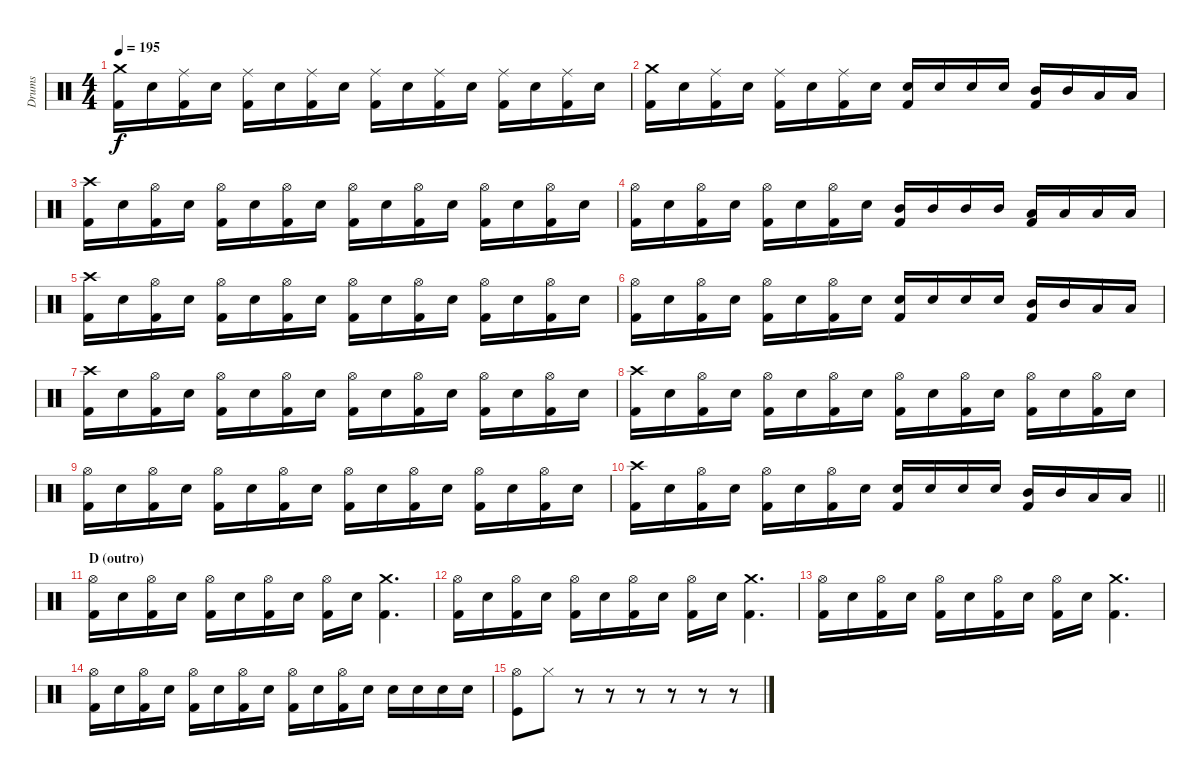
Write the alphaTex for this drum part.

\track ("Drums" "Drums") {instrument percussion}
\staff {score}
\articulation defaults
\ts (4 4)
\tempo 195
\clef neutral
\ks c
("Crash medium (hit)" "Kick (hit) 2").16{dy f} "Snare (hit) 2".16 ("Ride (middle)" "Kick (hit) 2").16 "Snare (hit) 2".16 ("Ride (middle)" "Kick (hit) 2").16 "Snare (hit) 2".16 ("Ride (middle)" "Kick (hit) 2").16 "Snare (hit) 2".16 ("Ride (middle)" "Kick (hit) 2").16 "Snare (hit) 2".16 ("Ride (middle)" "Kick (hit) 2").16 "Snare (hit) 2".16 ("Ride (middle)" "Kick (hit) 2").16 "Snare (hit) 2".16 ("Ride (middle)" "Kick (hit) 2").16 "Snare (hit) 2".16 |
("Crash medium (hit)" "Kick (hit) 2").16 "Snare (hit) 2".16 ("Ride (middle)" "Kick (hit) 2").16 "Snare (hit) 2".16 ("Ride (middle)" "Kick (hit) 2").16 "Snare (hit) 2".16 ("Ride (middle)" "Kick (hit) 2").16 "Snare (hit) 2".16 ("Snare (hit) 2" "Kick (hit) 2").16 "Snare (hit) 2".16 "Snare (hit) 2".16 "Snare (hit) 2".16 ("Mid Tom (hit)" "Kick (hit) 2").16 "Mid Tom (hit)".16 "Low Tom (hit)".16 "Low Tom (hit)".16 |
("Crash high (hit)" "Kick (hit) 2").16 "Snare (hit) 2".16 ("Hi-Hat (open)" "Kick (hit) 2").16 "Snare (hit) 2".16 ("Hi-Hat (open)" "Kick (hit) 2").16 "Snare (hit) 2".16 ("Hi-Hat (open)" "Kick (hit) 2").16 "Snare (hit) 2".16 ("Hi-Hat (open)" "Kick (hit) 2").16 "Snare (hit) 2".16 ("Hi-Hat (open)" "Kick (hit) 2").16 "Snare (hit) 2".16 ("Hi-Hat (open)" "Kick (hit) 2").16 "Snare (hit) 2".16 ("Hi-Hat (open)" "Kick (hit) 2").16 "Snare (hit) 2".16 |
("Hi-Hat (open)" "Kick (hit) 2").16 "Snare (hit) 2".16 ("Hi-Hat (open)" "Kick (hit) 2").16 "Snare (hit) 2".16 ("Hi-Hat (open)" "Kick (hit) 2").16 "Snare (hit) 2".16 ("Hi-Hat (open)" "Kick (hit) 2").16 "Snare (hit) 2".16 ("Mid Tom (hit)" "Kick (hit) 2").16 "Mid Tom (hit)".16 "Mid Tom (hit)".16 "Mid Tom (hit)".16 ("Low Tom (hit)" "Kick (hit) 2").16 "Low Tom (hit)".16 "Low Tom (hit)".16 "Low Tom (hit)".16 |
("Crash high (hit)" "Kick (hit) 2").16 "Snare (hit) 2".16 ("Hi-Hat (open)" "Kick (hit) 2").16 "Snare (hit) 2".16 ("Hi-Hat (open)" "Kick (hit) 2").16 "Snare (hit) 2".16 ("Hi-Hat (open)" "Kick (hit) 2").16 "Snare (hit) 2".16 ("Hi-Hat (open)" "Kick (hit) 2").16 "Snare (hit) 2".16 ("Hi-Hat (open)" "Kick (hit) 2").16 "Snare (hit) 2".16 ("Hi-Hat (open)" "Kick (hit) 2").16 "Snare (hit) 2".16 ("Hi-Hat (open)" "Kick (hit) 2").16 "Snare (hit) 2".16 |
("Hi-Hat (open)" "Kick (hit) 2").16 "Snare (hit) 2".16 ("Hi-Hat (open)" "Kick (hit) 2").16 "Snare (hit) 2".16 ("Hi-Hat (open)" "Kick (hit) 2").16 "Snare (hit) 2".16 ("Hi-Hat (open)" "Kick (hit) 2").16 "Snare (hit) 2".16 ("Snare (hit) 2" "Kick (hit) 2").16 "Snare (hit) 2".16 "Snare (hit) 2".16 "Snare (hit) 2".16 ("Mid Tom (hit)" "Kick (hit) 2").16 "Mid Tom (hit)".16 "Low Tom (hit)".16 "Low Tom (hit)".16 |
("Crash high (hit)" "Kick (hit) 2").16 "Snare (hit) 2".16 ("Hi-Hat (open)" "Kick (hit) 2").16 "Snare (hit) 2".16 ("Hi-Hat (open)" "Kick (hit) 2").16 "Snare (hit) 2".16 ("Hi-Hat (open)" "Kick (hit) 2").16 "Snare (hit) 2".16 ("Hi-Hat (open)" "Kick (hit) 2").16 "Snare (hit) 2".16 ("Hi-Hat (open)" "Kick (hit) 2").16 "Snare (hit) 2".16 ("Hi-Hat (open)" "Kick (hit) 2").16 "Snare (hit) 2".16 ("Hi-Hat (open)" "Kick (hit) 2").16 "Snare (hit) 2".16 |
("Crash high (hit)" "Kick (hit) 2").16 "Snare (hit) 2".16 ("Hi-Hat (open)" "Kick (hit) 2").16 "Snare (hit) 2".16 ("Hi-Hat (open)" "Kick (hit) 2").16 "Snare (hit) 2".16 ("Hi-Hat (open)" "Kick (hit) 2").16 "Snare (hit) 2".16 ("Hi-Hat (open)" "Kick (hit) 2").16 "Snare (hit) 2".16 ("Hi-Hat (open)" "Kick (hit) 2").16 "Snare (hit) 2".16 ("Hi-Hat (open)" "Kick (hit) 2").16 "Snare (hit) 2".16 ("Hi-Hat (open)" "Kick (hit) 2").16 "Snare (hit) 2".16 |
("Hi-Hat (open)" "Kick (hit) 2").16 "Snare (hit) 2".16 ("Hi-Hat (open)" "Kick (hit) 2").16 "Snare (hit) 2".16 ("Hi-Hat (open)" "Kick (hit) 2").16 "Snare (hit) 2".16 ("Hi-Hat (open)" "Kick (hit) 2").16 "Snare (hit) 2".16 ("Hi-Hat (open)" "Kick (hit) 2").16 "Snare (hit) 2".16 ("Hi-Hat (open)" "Kick (hit) 2").16 "Snare (hit) 2".16 ("Hi-Hat (open)" "Kick (hit) 2").16 "Snare (hit) 2".16 ("Hi-Hat (open)" "Kick (hit) 2").16 "Snare (hit) 2".16 |
\barLineRight lightlight
("Crash high (hit)" "Kick (hit) 2").16 "Snare (hit) 2".16 ("Hi-Hat (open)" "Kick (hit) 2").16 "Snare (hit) 2".16 ("Hi-Hat (open)" "Kick (hit) 2").16 "Snare (hit) 2".16 ("Hi-Hat (open)" "Kick (hit) 2").16 "Snare (hit) 2".16 ("Snare (hit) 2" "Kick (hit) 2").16 "Snare (hit) 2".16 "Snare (hit) 2".16 "Snare (hit) 2".16 ("Mid Tom (hit)" "Kick (hit) 2").16 "Mid Tom (hit)".16 "Low Tom (hit)".16 "Low Tom (hit)".16 |
\section ("" "D (outro)")
("Hi-Hat (open)" "Kick (hit) 2").16 "Snare (hit) 2".16 ("Hi-Hat (open)" "Kick (hit) 2").16 "Snare (hit) 2".16 ("Hi-Hat (open)" "Kick (hit) 2").16 "Snare (hit) 2".16 ("Hi-Hat (open)" "Kick (hit) 2").16 "Snare (hit) 2".16 ("Hi-Hat (open)" "Kick (hit) 2").16 "Snare (hit) 2".16 ("Crash medium (hit)" "Kick (hit) 2").4{d} |
("Hi-Hat (open)" "Kick (hit) 2").16 "Snare (hit) 2".16 ("Hi-Hat (open)" "Kick (hit) 2").16 "Snare (hit) 2".16 ("Hi-Hat (open)" "Kick (hit) 2").16 "Snare (hit) 2".16 ("Hi-Hat (open)" "Kick (hit) 2").16 "Snare (hit) 2".16 ("Hi-Hat (open)" "Kick (hit) 2").16 "Snare (hit) 2".16 ("Crash medium (hit)" "Kick (hit) 2").4{d} |
("Hi-Hat (open)" "Kick (hit) 2").16 "Snare (hit) 2".16 ("Hi-Hat (open)" "Kick (hit) 2").16 "Snare (hit) 2".16 ("Hi-Hat (open)" "Kick (hit) 2").16 "Snare (hit) 2".16 ("Hi-Hat (open)" "Kick (hit) 2").16 "Snare (hit) 2".16 ("Hi-Hat (open)" "Kick (hit) 2").16 "Snare (hit) 2".16 ("Crash medium (hit)" "Kick (hit) 2").4{d} |
("Hi-Hat (open)" "Kick (hit) 2").16 "Snare (hit) 2".16 ("Hi-Hat (open)" "Kick (hit) 2").16 "Snare (hit) 2".16 ("Hi-Hat (open)" "Kick (hit) 2").16 "Snare (hit) 2".16 ("Hi-Hat (open)" "Kick (hit) 2").16 "Snare (hit) 2".16 ("Hi-Hat (open)" "Kick (hit) 2").16 "Snare (hit) 2".16 ("Hi-Hat (open)" "Kick (hit) 2").16 "Snare (hit) 2".16 "Snare (hit) 2".16 "Snare (hit) 2".16 "Snare (hit) 2".16 "Snare (hit) 2".16 |
("Hi-Hat (open)" "Kick (hit)").8 "Hi-Hat (closed)".8 r.8 r.8 r.8 r.8 r.8 r.8
